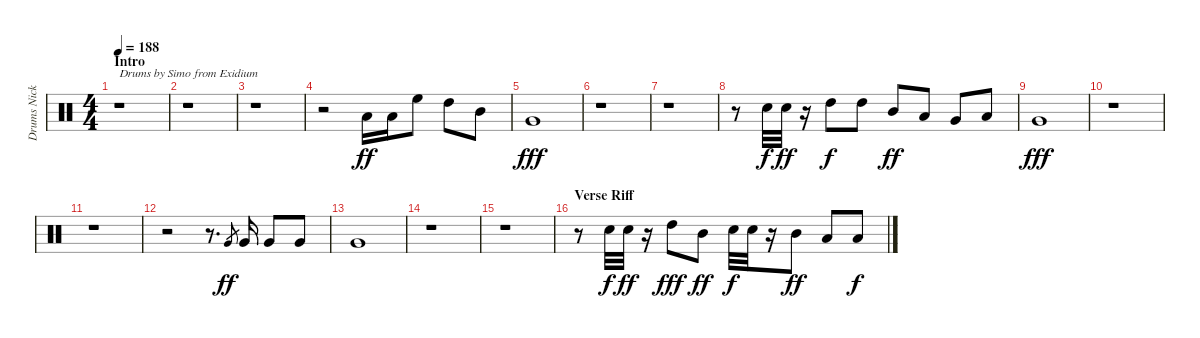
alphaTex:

\track ("Drums Nicko McBrain" "Drums Nick") {instrument percussion}
\staff {score}
\articulation defaults
\ts (4 4)
\section ("" "Intro")
\tempo 188
\clef neutral
\ks c
r.1{txt "Drums by Simo from Exidium" dy ff} |
r.1 |
r.1 |
r.2 "Low Tom (hit)".16 "Low Tom (hit)".16 "High Floor Tom (hit)".8 "High Tom (hit)".8 "Mid Tom (hit)".8 |
"Very Low Tom (hit)".1{dy fff} |
r.1 |
r.1 |
r.8 "Electric Snare (hit)".32{dy f} "Electric Snare (hit)".32{dy ff} r.16 "High Tom (hit)".8{dy f} "High Tom (hit)".8 "Mid Tom (hit)".8{dy ff} "Low Tom (hit)".8 "Very Low Tom (hit)".8 "Low Floor Tom (hit)".8 |
"Very Low Tom (hit)".1{dy fff} |
r.1 |
r.1 |
r.2 r.8{d} "Very Low Tom (hit)".8{gr dy ff} "Very Low Tom (hit)".16 "Very Low Tom (hit)".8 "Very Low Tom (hit)".8 |
"Very Low Tom (hit)".1 |
r.1 |
r.1 |
\section ("" "Verse Riff")
r.8 "Electric Snare (hit)".32{dy f} "Electric Snare (hit)".32{dy ff} r.16 "High Tom (hit)".8{dy fff} "Mid Tom (hit)".8{dy ff} "Electric Snare (hit)".32{dy f} "Electric Snare (hit)".32 r.16 "Mid Tom (hit)".8{dy ff} "Low Tom (hit)".8 "Low Tom (hit)".8{dy f}
